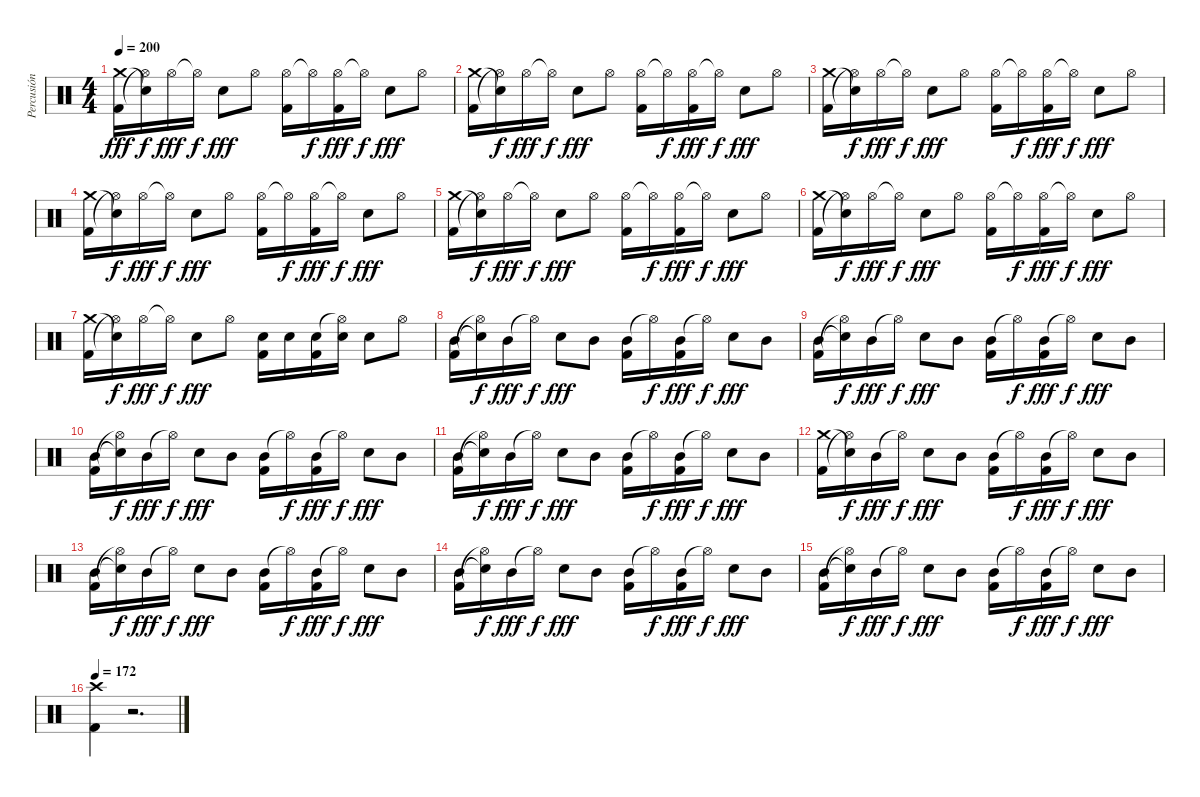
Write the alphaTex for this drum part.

\track ("Percusión" "Percusión") {instrument percussion}
\staff {score}
\articulation defaults
\ts (4 4)
\tempo 200
\clef neutral
\ks c
("Crash medium (hit)" "Kick (hit) 2").16{dy fff} ("Snare (hit)"{t} "Hi-Hat (open)"{t}).16{dy f} "Hi-Hat (open)".16{dy fff} "Hi-Hat (open)"{t}.16{dy f} "Electric Snare (hit)".8{dy fff} "Hi-Hat (open)".8 ("Hi-Hat (open)" "Kick (hit) 2").16 "Hi-Hat (open)"{t}.16{dy f} ("Hi-Hat (open)" "Kick (hit) 2").16{dy fff} "Hi-Hat (open)"{t}.16{dy f} "Electric Snare (hit)".8{dy fff} "Hi-Hat (open)".8 |
("Crash medium (hit)" "Kick (hit) 2").16 ("Snare (hit)"{t} "Hi-Hat (open)"{t}).16{dy f} "Hi-Hat (open)".16{dy fff} "Hi-Hat (open)"{t}.16{dy f} "Electric Snare (hit)".8{dy fff} "Hi-Hat (open)".8 ("Hi-Hat (open)" "Kick (hit) 2").16 "Hi-Hat (open)"{t}.16{dy f} ("Hi-Hat (open)" "Kick (hit) 2").16{dy fff} "Hi-Hat (open)"{t}.16{dy f} "Electric Snare (hit)".8{dy fff} "Hi-Hat (open)".8 |
("Crash medium (hit)" "Kick (hit) 2").16 ("Snare (hit)"{t} "Hi-Hat (open)"{t}).16{dy f} "Hi-Hat (open)".16{dy fff} "Hi-Hat (open)"{t}.16{dy f} "Electric Snare (hit)".8{dy fff} "Hi-Hat (open)".8 ("Hi-Hat (open)" "Kick (hit) 2").16 "Hi-Hat (open)"{t}.16{dy f} ("Hi-Hat (open)" "Kick (hit) 2").16{dy fff} "Hi-Hat (open)"{t}.16{dy f} "Electric Snare (hit)".8{dy fff} "Hi-Hat (open)".8 |
("Crash medium (hit)" "Kick (hit) 2").16 ("Snare (hit)"{t} "Hi-Hat (open)"{t}).16{dy f} "Hi-Hat (open)".16{dy fff} "Hi-Hat (open)"{t}.16{dy f} "Electric Snare (hit)".8{dy fff} "Hi-Hat (open)".8 ("Hi-Hat (open)" "Kick (hit) 2").16 "Hi-Hat (open)"{t}.16{dy f} ("Hi-Hat (open)" "Kick (hit) 2").16{dy fff} "Hi-Hat (open)"{t}.16{dy f} "Electric Snare (hit)".8{dy fff} "Hi-Hat (open)".8 |
("Crash medium (hit)" "Kick (hit) 2").16 ("Snare (hit)"{t} "Hi-Hat (open)"{t}).16{dy f} "Hi-Hat (open)".16{dy fff} "Hi-Hat (open)"{t}.16{dy f} "Electric Snare (hit)".8{dy fff} "Hi-Hat (open)".8 ("Hi-Hat (open)" "Kick (hit) 2").16 "Hi-Hat (open)"{t}.16{dy f} ("Hi-Hat (open)" "Kick (hit) 2").16{dy fff} "Hi-Hat (open)"{t}.16{dy f} "Electric Snare (hit)".8{dy fff} "Hi-Hat (open)".8 |
("Crash medium (hit)" "Kick (hit) 2").16 ("Snare (hit)"{t} "Hi-Hat (open)"{t}).16{dy f} "Hi-Hat (open)".16{dy fff} "Hi-Hat (open)"{t}.16{dy f} "Electric Snare (hit)".8{dy fff} "Hi-Hat (open)".8 ("Hi-Hat (open)" "Kick (hit) 2").16 "Hi-Hat (open)"{t}.16{dy f} ("Hi-Hat (open)" "Kick (hit) 2").16{dy fff} "Hi-Hat (open)"{t}.16{dy f} "Electric Snare (hit)".8{dy fff} "Hi-Hat (open)".8 |
("Crash medium (hit)" "Kick (hit) 2").16 ("Snare (hit)"{t} "Hi-Hat (open)"{t}).16{dy f} "Hi-Hat (open)".16{dy fff} "Hi-Hat (open)"{t}.16{dy f} "Electric Snare (hit)".8{dy fff} "Hi-Hat (open)".8 ("Electric Snare (hit)" "Kick (hit) 2").16 "Electric Snare (hit)".16 ("Electric Snare (hit)" "Kick (hit) 2").16 ("Hi-Hat (open)"{t} "Electric Snare (hit)").16 "Electric Snare (hit)".8 "Hi-Hat (open)".8 |
("Mid Tom (hit)" "Kick (hit) 2").16 ("Snare (hit)"{t} "Hi-Hat (open)"{t}).16{dy f} "Mid Tom (hit)".16{dy fff} "Hi-Hat (open)"{t}.16{dy f} "Electric Snare (hit)".8{dy fff} "Mid Tom (hit)".8 ("Mid Tom (hit)" "Kick (hit) 2").16 "Hi-Hat (open)"{t}.16{dy f} ("Mid Tom (hit)" "Kick (hit) 2").16{dy fff} "Hi-Hat (open)"{t}.16{dy f} "Electric Snare (hit)".8{dy fff} "Mid Tom (hit)".8 |
("Mid Tom (hit)" "Kick (hit) 2").16 ("Snare (hit)"{t} "Hi-Hat (open)"{t}).16{dy f} "Mid Tom (hit)".16{dy fff} "Hi-Hat (open)"{t}.16{dy f} "Electric Snare (hit)".8{dy fff} "Mid Tom (hit)".8 ("Mid Tom (hit)" "Kick (hit) 2").16 "Hi-Hat (open)"{t}.16{dy f} ("Mid Tom (hit)" "Kick (hit) 2").16{dy fff} "Hi-Hat (open)"{t}.16{dy f} "Electric Snare (hit)".8{dy fff} "Mid Tom (hit)".8 |
("Mid Tom (hit)" "Kick (hit) 2").16 ("Snare (hit)"{t} "Hi-Hat (open)"{t}).16{dy f} "Mid Tom (hit)".16{dy fff} "Hi-Hat (open)"{t}.16{dy f} "Electric Snare (hit)".8{dy fff} "Mid Tom (hit)".8 ("Mid Tom (hit)" "Kick (hit) 2").16 "Hi-Hat (open)"{t}.16{dy f} ("Mid Tom (hit)" "Kick (hit) 2").16{dy fff} "Hi-Hat (open)"{t}.16{dy f} "Electric Snare (hit)".8{dy fff} "Mid Tom (hit)".8 |
("Mid Tom (hit)" "Kick (hit) 2").16 ("Snare (hit)"{t} "Hi-Hat (open)"{t}).16{dy f} "Mid Tom (hit)".16{dy fff} "Hi-Hat (open)"{t}.16{dy f} "Electric Snare (hit)".8{dy fff} "Mid Tom (hit)".8 ("Mid Tom (hit)" "Kick (hit) 2").16 "Hi-Hat (open)"{t}.16{dy f} ("Mid Tom (hit)" "Kick (hit) 2").16{dy fff} "Hi-Hat (open)"{t}.16{dy f} "Electric Snare (hit)".8{dy fff} "Mid Tom (hit)".8 |
("Crash medium (hit)" "Kick (hit) 2").16 ("Snare (hit)"{t} "Hi-Hat (open)"{t}).16{dy f} "Mid Tom (hit)".16{dy fff} "Hi-Hat (open)"{t}.16{dy f} "Electric Snare (hit)".8{dy fff} "Mid Tom (hit)".8 ("Mid Tom (hit)" "Kick (hit) 2").16 "Hi-Hat (open)"{t}.16{dy f} ("Mid Tom (hit)" "Kick (hit) 2").16{dy fff} "Hi-Hat (open)"{t}.16{dy f} "Electric Snare (hit)".8{dy fff} "Mid Tom (hit)".8 |
("Mid Tom (hit)" "Kick (hit) 2").16 ("Snare (hit)"{t} "Hi-Hat (open)"{t}).16{dy f} "Mid Tom (hit)".16{dy fff} "Hi-Hat (open)"{t}.16{dy f} "Electric Snare (hit)".8{dy fff} "Mid Tom (hit)".8 ("Mid Tom (hit)" "Kick (hit) 2").16 "Hi-Hat (open)"{t}.16{dy f} ("Mid Tom (hit)" "Kick (hit) 2").16{dy fff} "Hi-Hat (open)"{t}.16{dy f} "Electric Snare (hit)".8{dy fff} "Mid Tom (hit)".8 |
("Mid Tom (hit)" "Kick (hit) 2").16 ("Snare (hit)"{t} "Hi-Hat (open)"{t}).16{dy f} "Mid Tom (hit)".16{dy fff} "Hi-Hat (open)"{t}.16{dy f} "Electric Snare (hit)".8{dy fff} "Mid Tom (hit)".8 ("Mid Tom (hit)" "Kick (hit) 2").16 "Hi-Hat (open)"{t}.16{dy f} ("Mid Tom (hit)" "Kick (hit) 2").16{dy fff} "Hi-Hat (open)"{t}.16{dy f} "Electric Snare (hit)".8{dy fff} "Mid Tom (hit)".8 |
("Mid Tom (hit)" "Kick (hit) 2").16 ("Snare (hit)"{t} "Hi-Hat (open)"{t}).16{dy f} "Mid Tom (hit)".16{dy fff} "Hi-Hat (open)"{t}.16{dy f} "Electric Snare (hit)".8{dy fff} "Mid Tom (hit)".8 ("Mid Tom (hit)" "Kick (hit) 2").16 "Hi-Hat (open)"{t}.16{dy f} ("Mid Tom (hit)" "Kick (hit) 2").16{dy fff} "Hi-Hat (open)"{t}.16{dy f} "Electric Snare (hit)".8{dy fff} "Mid Tom (hit)".8 |
\tempo 172
("Crash high (hit)" "Kick (hit) 2").4 r.2{d}
